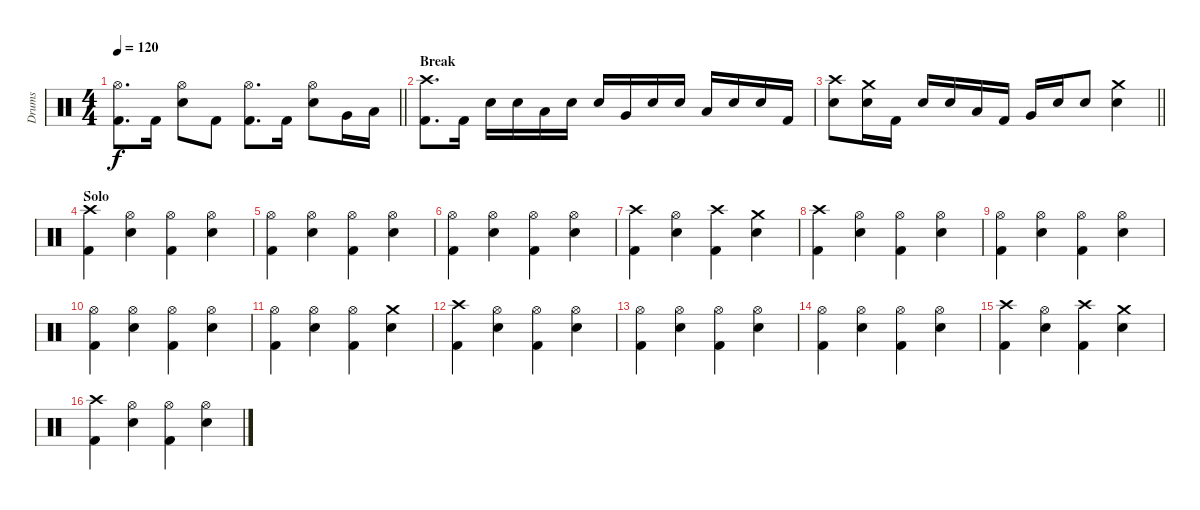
\track ("Drums" "Drums") {instrument percussion}
\staff {score}
\articulation defaults
\ts (4 4)
\tempo 120
\clef neutral
\barLineRight lightlight
\ks c
("Hi-Hat (open)" "Kick (hit) 2").8{d dy f} "Kick (hit) 2".16 ("Hi-Hat (open)" "Snare (hit) 2").8 "Kick (hit) 2".8 ("Hi-Hat (open)" "Kick (hit) 2").8{d} "Kick (hit) 2".16 ("Hi-Hat (open)" "Snare (hit) 2").8 "Very Low Tom (hit)".16 "Low Floor Tom (hit)".16 |
\section ("" "Break")
("Crash high (hit)" "Kick (hit) 2").8{d} "Kick (hit) 2".16 "Snare (hit) 2".16 "Snare (hit) 2".16 "Low Tom (hit)".16 "Snare (hit) 2".16 "Snare (hit) 2".16 "Very Low Tom (hit)".16 "Snare (hit) 2".16 "Snare (hit) 2".16 "Low Floor Tom (hit)".16 "Snare (hit) 2".16 "Snare (hit) 2".16 "Kick (hit) 2".16 |
\barLineRight lightlight
("Crash high (hit)" "Snare (hit) 2").8 ("Crash medium (hit)" "Snare (hit) 2").16 "Kick (hit) 2".16 "Snare (hit) 2".16 "Snare (hit) 2".16 "Low Tom (hit)".16 "Kick (hit) 2".16 "Very Low Tom (hit)".16 "Snare (hit) 2".16 "Snare (hit) 2".8 ("Crash medium (hit)" "Snare (hit) 2").4 |
\section ("" "Solo")
("Crash high (hit)" "Kick (hit) 2").4 ("Hi-Hat (open)" "Snare (hit) 2").4 ("Hi-Hat (open)" "Kick (hit) 2").4 ("Hi-Hat (open)" "Snare (hit) 2").4 |
("Hi-Hat (open)" "Kick (hit) 2").4 ("Hi-Hat (open)" "Snare (hit) 2").4 ("Hi-Hat (open)" "Kick (hit) 2").4 ("Hi-Hat (open)" "Snare (hit) 2").4 |
("Hi-Hat (open)" "Kick (hit) 2").4 ("Hi-Hat (open)" "Snare (hit) 2").4 ("Hi-Hat (open)" "Kick (hit) 2").4 ("Hi-Hat (open)" "Snare (hit) 2").4 |
("Crash high (hit)" "Kick (hit) 2").4 ("Hi-Hat (open)" "Snare (hit) 2").4 ("Crash high (hit)" "Kick (hit) 2").4 ("Crash medium (hit)" "Snare (hit) 2").4 |
("Crash high (hit)" "Kick (hit) 2").4 ("Hi-Hat (open)" "Snare (hit) 2").4 ("Hi-Hat (open)" "Kick (hit) 2").4 ("Hi-Hat (open)" "Snare (hit) 2").4 |
("Hi-Hat (open)" "Kick (hit) 2").4 ("Hi-Hat (open)" "Snare (hit) 2").4 ("Hi-Hat (open)" "Kick (hit) 2").4 ("Hi-Hat (open)" "Snare (hit) 2").4 |
("Hi-Hat (open)" "Kick (hit) 2").4 ("Hi-Hat (open)" "Snare (hit) 2").4 ("Hi-Hat (open)" "Kick (hit) 2").4 ("Hi-Hat (open)" "Snare (hit) 2").4 |
("Hi-Hat (open)" "Kick (hit) 2").4 ("Hi-Hat (open)" "Snare (hit) 2").4 ("Hi-Hat (open)" "Kick (hit) 2").4 ("Crash medium (hit)" "Snare (hit) 2").4 |
("Crash high (hit)" "Kick (hit) 2").4 ("Hi-Hat (open)" "Snare (hit) 2").4 ("Hi-Hat (open)" "Kick (hit) 2").4 ("Hi-Hat (open)" "Snare (hit) 2").4 |
("Hi-Hat (open)" "Kick (hit) 2").4 ("Hi-Hat (open)" "Snare (hit) 2").4 ("Hi-Hat (open)" "Kick (hit) 2").4 ("Hi-Hat (open)" "Snare (hit) 2").4 |
("Hi-Hat (open)" "Kick (hit) 2").4 ("Hi-Hat (open)" "Snare (hit) 2").4 ("Hi-Hat (open)" "Kick (hit) 2").4 ("Hi-Hat (open)" "Snare (hit) 2").4 |
("Crash high (hit)" "Kick (hit) 2").4 ("Hi-Hat (open)" "Snare (hit) 2").4 ("Crash high (hit)" "Kick (hit) 2").4 ("Crash medium (hit)" "Snare (hit) 2").4 |
("Crash high (hit)" "Kick (hit) 2").4 ("Hi-Hat (open)" "Snare (hit) 2").4 ("Hi-Hat (open)" "Kick (hit) 2").4 ("Hi-Hat (open)" "Snare (hit) 2").4
